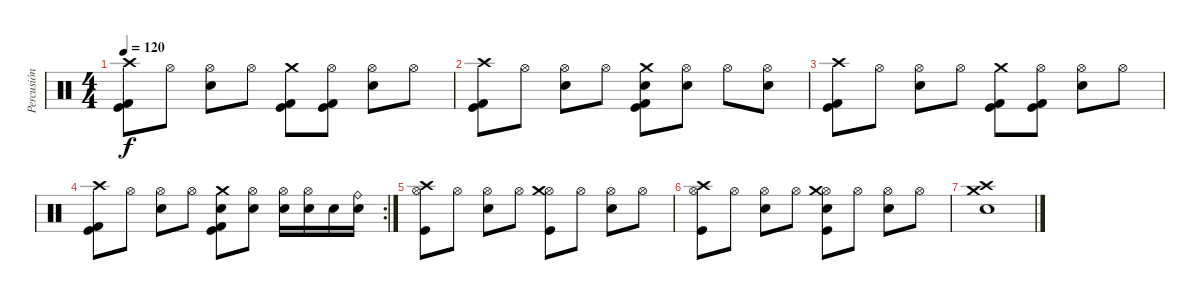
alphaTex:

\track ("Percusión" "Percusión") {instrument percussion}
\staff {score}
\articulation defaults
\ts (4 4)
\tempo 120
\clef neutral
\ks c
("Crash high (hit)" "Kick (hit) 2" "Kick (hit)").8{dy f} "Hi-Hat (open)".8 ("Hi-Hat (open)" "Snare (hit) 2").8 "Hi-Hat (open)".8 ("Crash medium (hit)" "Kick (hit) 2" "Kick (hit)").8 ("Hi-Hat (open)" "Kick (hit) 2" "Kick (hit)").8 ("Hi-Hat (open)" "Snare (hit) 2").8 "Hi-Hat (open)".8 |
("Crash high (hit)" "Kick (hit) 2" "Kick (hit)").8 "Hi-Hat (open)".8 ("Hi-Hat (open)" "Snare (hit) 2").8 "Hi-Hat (open)".8 ("Crash medium (hit)" "Snare (hit) 2" "Kick (hit) 2" "Kick (hit)").8 ("Hi-Hat (open)" "Snare (hit) 2").8 "Hi-Hat (open)".8 ("Hi-Hat (open)" "Snare (hit) 2").8 |
("Crash high (hit)" "Kick (hit) 2" "Kick (hit)").8 "Hi-Hat (open)".8 ("Hi-Hat (open)" "Snare (hit) 2").8 "Hi-Hat (open)".8 ("Crash medium (hit)" "Kick (hit) 2" "Kick (hit)").8 ("Hi-Hat (open)" "Kick (hit) 2" "Kick (hit)").8 ("Hi-Hat (open)" "Snare (hit) 2").8 "Hi-Hat (open)".8 |
\rc 2
("Crash high (hit)" "Kick (hit) 2" "Kick (hit)").8 "Hi-Hat (open)".8 ("Hi-Hat (open)" "Snare (hit) 2").8 "Hi-Hat (open)".8 ("Crash medium (hit)" "Snare (hit) 2" "Kick (hit) 2" "Kick (hit)").8 ("Hi-Hat (open)" "Snare (hit) 2").8 ("Hi-Hat (open)" "Snare (hit) 2").16 ("Hi-Hat (open)" "Snare (hit) 2").16 "Snare (hit) 2".16 ("Ride (bell)" "Snare (hit) 2").16 |
("Hi-Hat (open)" "Crash high (hit)" "Kick (hit)").8 "Hi-Hat (open)".8 ("Hi-Hat (open)" "Snare (hit) 2").8 "Hi-Hat (open)".8 ("Hi-Hat (open)" "Crash medium (hit)" "Kick (hit)").8 "Hi-Hat (open)".8 ("Hi-Hat (open)" "Snare (hit) 2").8 "Hi-Hat (open)".8 |
("Hi-Hat (open)" "Crash high (hit)" "Kick (hit)").8 "Hi-Hat (open)".8 ("Hi-Hat (open)" "Snare (hit) 2").8 "Hi-Hat (open)".8 ("Hi-Hat (open)" "Crash medium (hit)" "Snare (hit) 2" "Kick (hit)").8 "Hi-Hat (open)".8 ("Hi-Hat (open)" "Snare (hit) 2").8 "Hi-Hat (open)".8 |
("Snare (hit) 2" "Crash high (hit)" "Crash medium (hit)").1
